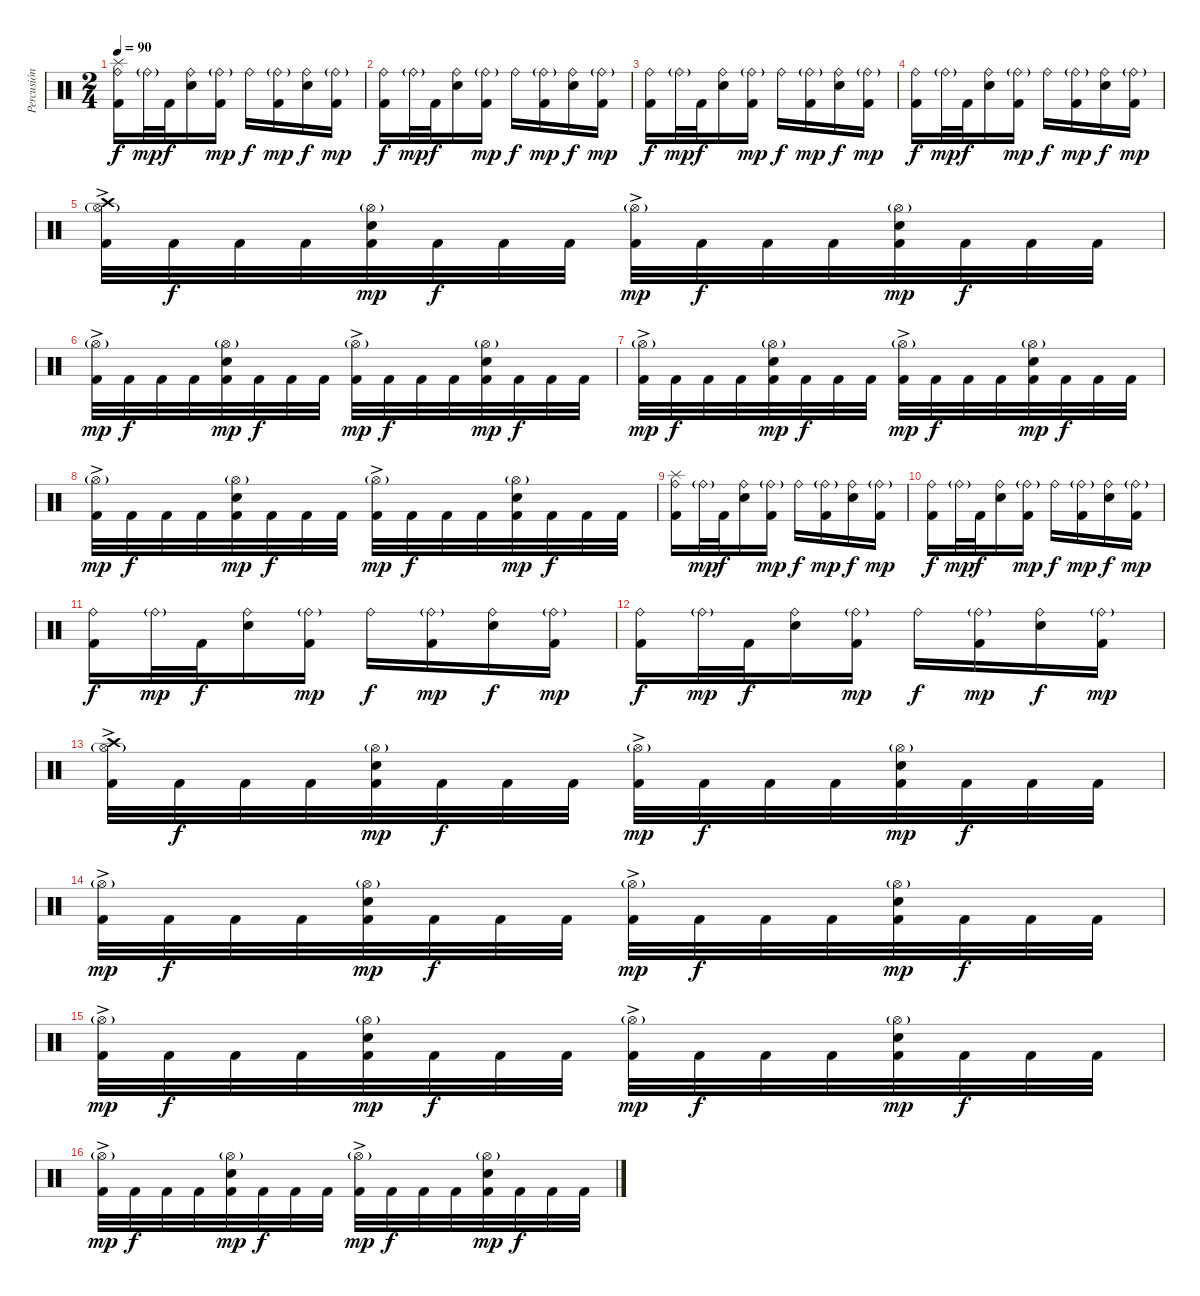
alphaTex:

\track ("Percusión" "Percusión") {instrument percussion}
\staff {score}
\articulation defaults
\ts (2 4)
\tempo 90
\clef neutral
\ks c
("Kick (hit) 2" "Ride (bell)" "Splash (hit)").16{dy f} "Ride (bell)"{g}.32{dy mp} "Kick (hit) 2".32{dy f} ("Electric Snare (hit)" "Ride (bell)").16 ("Kick (hit) 2" "Ride (bell)"{g}).16{dy mp} "Ride (bell)".16{dy f} ("Kick (hit) 2" "Ride (bell)"{g}).16{dy mp} ("Electric Snare (hit)" "Ride (bell)").16{dy f} ("Kick (hit) 2" "Ride (bell)"{g}).16{dy mp} |
("Kick (hit) 2" "Ride (bell)").16{dy f} "Ride (bell)"{g}.32{dy mp} "Kick (hit) 2".32{dy f} ("Electric Snare (hit)" "Ride (bell)").16 ("Kick (hit) 2" "Ride (bell)"{g}).16{dy mp} "Ride (bell)".16{dy f} ("Kick (hit) 2" "Ride (bell)"{g}).16{dy mp} ("Electric Snare (hit)" "Ride (bell)").16{dy f} ("Kick (hit) 2" "Ride (bell)"{g}).16{dy mp} |
("Kick (hit) 2" "Ride (bell)").16{dy f} "Ride (bell)"{g}.32{dy mp} "Kick (hit) 2".32{dy f} ("Electric Snare (hit)" "Ride (bell)").16 ("Kick (hit) 2" "Ride (bell)"{g}).16{dy mp} "Ride (bell)".16{dy f} ("Kick (hit) 2" "Ride (bell)"{g}).16{dy mp} ("Electric Snare (hit)" "Ride (bell)").16{dy f} ("Kick (hit) 2" "Ride (bell)"{g}).16{dy mp} |
("Kick (hit) 2" "Ride (bell)").16{dy f} "Ride (bell)"{g}.32{dy mp} "Kick (hit) 2".32{dy f} ("Electric Snare (hit)" "Ride (bell)").16 ("Kick (hit) 2" "Ride (bell)"{g}).16{dy mp} "Ride (bell)".16{dy f} ("Kick (hit) 2" "Ride (bell)"{g}).16{dy mp} ("Electric Snare (hit)" "Ride (bell)").16{dy f} ("Kick (hit) 2" "Ride (bell)"{g}).16{dy mp} |
("Kick (hit) 2"{ac} "Hi-Hat (open)"{g} "Crash high (hit)").32 "Kick (hit) 2".32{dy f} "Kick (hit) 2".32 "Kick (hit) 2".32 ("Kick (hit) 2" "Electric Snare (hit)" "Hi-Hat (open)"{g}).32{dy mp} "Kick (hit) 2".32{dy f} "Kick (hit) 2".32 "Kick (hit) 2".32 ("Kick (hit) 2"{ac} "Hi-Hat (open)"{g}).32{dy mp} "Kick (hit) 2".32{dy f} "Kick (hit) 2".32 "Kick (hit) 2".32 ("Kick (hit) 2" "Electric Snare (hit)" "Hi-Hat (open)"{g}).32{dy mp} "Kick (hit) 2".32{dy f} "Kick (hit) 2".32 "Kick (hit) 2".32 |
("Kick (hit) 2"{ac} "Hi-Hat (open)"{g}).32{dy mp} "Kick (hit) 2".32{dy f} "Kick (hit) 2".32 "Kick (hit) 2".32 ("Kick (hit) 2" "Electric Snare (hit)" "Hi-Hat (open)"{g}).32{dy mp} "Kick (hit) 2".32{dy f} "Kick (hit) 2".32 "Kick (hit) 2".32 ("Kick (hit) 2"{ac} "Hi-Hat (open)"{g}).32{dy mp} "Kick (hit) 2".32{dy f} "Kick (hit) 2".32 "Kick (hit) 2".32 ("Kick (hit) 2" "Electric Snare (hit)" "Hi-Hat (open)"{g}).32{dy mp} "Kick (hit) 2".32{dy f} "Kick (hit) 2".32 "Kick (hit) 2".32 |
("Kick (hit) 2"{ac} "Hi-Hat (open)"{g}).32{dy mp} "Kick (hit) 2".32{dy f} "Kick (hit) 2".32 "Kick (hit) 2".32 ("Kick (hit) 2" "Electric Snare (hit)" "Hi-Hat (open)"{g}).32{dy mp} "Kick (hit) 2".32{dy f} "Kick (hit) 2".32 "Kick (hit) 2".32 ("Kick (hit) 2"{ac} "Hi-Hat (open)"{g}).32{dy mp} "Kick (hit) 2".32{dy f} "Kick (hit) 2".32 "Kick (hit) 2".32 ("Kick (hit) 2" "Electric Snare (hit)" "Hi-Hat (open)"{g}).32{dy mp} "Kick (hit) 2".32{dy f} "Kick (hit) 2".32 "Kick (hit) 2".32 |
("Kick (hit) 2"{ac} "Hi-Hat (open)"{g}).32{dy mp} "Kick (hit) 2".32{dy f} "Kick (hit) 2".32 "Kick (hit) 2".32 ("Kick (hit) 2" "Electric Snare (hit)" "Hi-Hat (open)"{g}).32{dy mp} "Kick (hit) 2".32{dy f} "Kick (hit) 2".32 "Kick (hit) 2".32 ("Kick (hit) 2"{ac} "Hi-Hat (open)"{g}).32{dy mp} "Kick (hit) 2".32{dy f} "Kick (hit) 2".32 "Kick (hit) 2".32 ("Kick (hit) 2" "Electric Snare (hit)" "Hi-Hat (open)"{g}).32{dy mp} "Kick (hit) 2".32{dy f} "Kick (hit) 2".32 "Kick (hit) 2".32 |
("Kick (hit) 2" "Ride (bell)" "Splash (hit)").16 "Ride (bell)"{g}.32{dy mp} "Kick (hit) 2".32{dy f} ("Electric Snare (hit)" "Ride (bell)").16 ("Kick (hit) 2" "Ride (bell)"{g}).16{dy mp} "Ride (bell)".16{dy f} ("Kick (hit) 2" "Ride (bell)"{g}).16{dy mp} ("Electric Snare (hit)" "Ride (bell)").16{dy f} ("Kick (hit) 2" "Ride (bell)"{g}).16{dy mp} |
("Kick (hit) 2" "Ride (bell)").16{dy f} "Ride (bell)"{g}.32{dy mp} "Kick (hit) 2".32{dy f} ("Electric Snare (hit)" "Ride (bell)").16 ("Kick (hit) 2" "Ride (bell)"{g}).16{dy mp} "Ride (bell)".16{dy f} ("Kick (hit) 2" "Ride (bell)"{g}).16{dy mp} ("Electric Snare (hit)" "Ride (bell)").16{dy f} ("Kick (hit) 2" "Ride (bell)"{g}).16{dy mp} |
("Kick (hit) 2" "Ride (bell)").16{dy f} "Ride (bell)"{g}.32{dy mp} "Kick (hit) 2".32{dy f} ("Electric Snare (hit)" "Ride (bell)").16 ("Kick (hit) 2" "Ride (bell)"{g}).16{dy mp} "Ride (bell)".16{dy f} ("Kick (hit) 2" "Ride (bell)"{g}).16{dy mp} ("Electric Snare (hit)" "Ride (bell)").16{dy f} ("Kick (hit) 2" "Ride (bell)"{g}).16{dy mp} |
("Kick (hit) 2" "Ride (bell)").16{dy f} "Ride (bell)"{g}.32{dy mp} "Kick (hit) 2".32{dy f} ("Electric Snare (hit)" "Ride (bell)").16 ("Kick (hit) 2" "Ride (bell)"{g}).16{dy mp} "Ride (bell)".16{dy f} ("Kick (hit) 2" "Ride (bell)"{g}).16{dy mp} ("Electric Snare (hit)" "Ride (bell)").16{dy f} ("Kick (hit) 2" "Ride (bell)"{g}).16{dy mp} |
("Kick (hit) 2"{ac} "Hi-Hat (open)"{g} "Crash high (hit)").32 "Kick (hit) 2".32{dy f} "Kick (hit) 2".32 "Kick (hit) 2".32 ("Kick (hit) 2" "Electric Snare (hit)" "Hi-Hat (open)"{g}).32{dy mp} "Kick (hit) 2".32{dy f} "Kick (hit) 2".32 "Kick (hit) 2".32 ("Kick (hit) 2"{ac} "Hi-Hat (open)"{g}).32{dy mp} "Kick (hit) 2".32{dy f} "Kick (hit) 2".32 "Kick (hit) 2".32 ("Kick (hit) 2" "Electric Snare (hit)" "Hi-Hat (open)"{g}).32{dy mp} "Kick (hit) 2".32{dy f} "Kick (hit) 2".32 "Kick (hit) 2".32 |
("Kick (hit) 2"{ac} "Hi-Hat (open)"{g}).32{dy mp} "Kick (hit) 2".32{dy f} "Kick (hit) 2".32 "Kick (hit) 2".32 ("Kick (hit) 2" "Electric Snare (hit)" "Hi-Hat (open)"{g}).32{dy mp} "Kick (hit) 2".32{dy f} "Kick (hit) 2".32 "Kick (hit) 2".32 ("Kick (hit) 2"{ac} "Hi-Hat (open)"{g}).32{dy mp} "Kick (hit) 2".32{dy f} "Kick (hit) 2".32 "Kick (hit) 2".32 ("Kick (hit) 2" "Electric Snare (hit)" "Hi-Hat (open)"{g}).32{dy mp} "Kick (hit) 2".32{dy f} "Kick (hit) 2".32 "Kick (hit) 2".32 |
("Kick (hit) 2"{ac} "Hi-Hat (open)"{g}).32{dy mp} "Kick (hit) 2".32{dy f} "Kick (hit) 2".32 "Kick (hit) 2".32 ("Kick (hit) 2" "Electric Snare (hit)" "Hi-Hat (open)"{g}).32{dy mp} "Kick (hit) 2".32{dy f} "Kick (hit) 2".32 "Kick (hit) 2".32 ("Kick (hit) 2"{ac} "Hi-Hat (open)"{g}).32{dy mp} "Kick (hit) 2".32{dy f} "Kick (hit) 2".32 "Kick (hit) 2".32 ("Kick (hit) 2" "Electric Snare (hit)" "Hi-Hat (open)"{g}).32{dy mp} "Kick (hit) 2".32{dy f} "Kick (hit) 2".32 "Kick (hit) 2".32 |
("Kick (hit) 2"{ac} "Hi-Hat (open)"{g}).32{dy mp} "Kick (hit) 2".32{dy f} "Kick (hit) 2".32 "Kick (hit) 2".32 ("Kick (hit) 2" "Electric Snare (hit)" "Hi-Hat (open)"{g}).32{dy mp} "Kick (hit) 2".32{dy f} "Kick (hit) 2".32 "Kick (hit) 2".32 ("Kick (hit) 2"{ac} "Hi-Hat (open)"{g}).32{dy mp} "Kick (hit) 2".32{dy f} "Kick (hit) 2".32 "Kick (hit) 2".32 ("Kick (hit) 2" "Electric Snare (hit)" "Hi-Hat (open)"{g}).32{dy mp} "Kick (hit) 2".32{dy f} "Kick (hit) 2".32 "Kick (hit) 2".32
